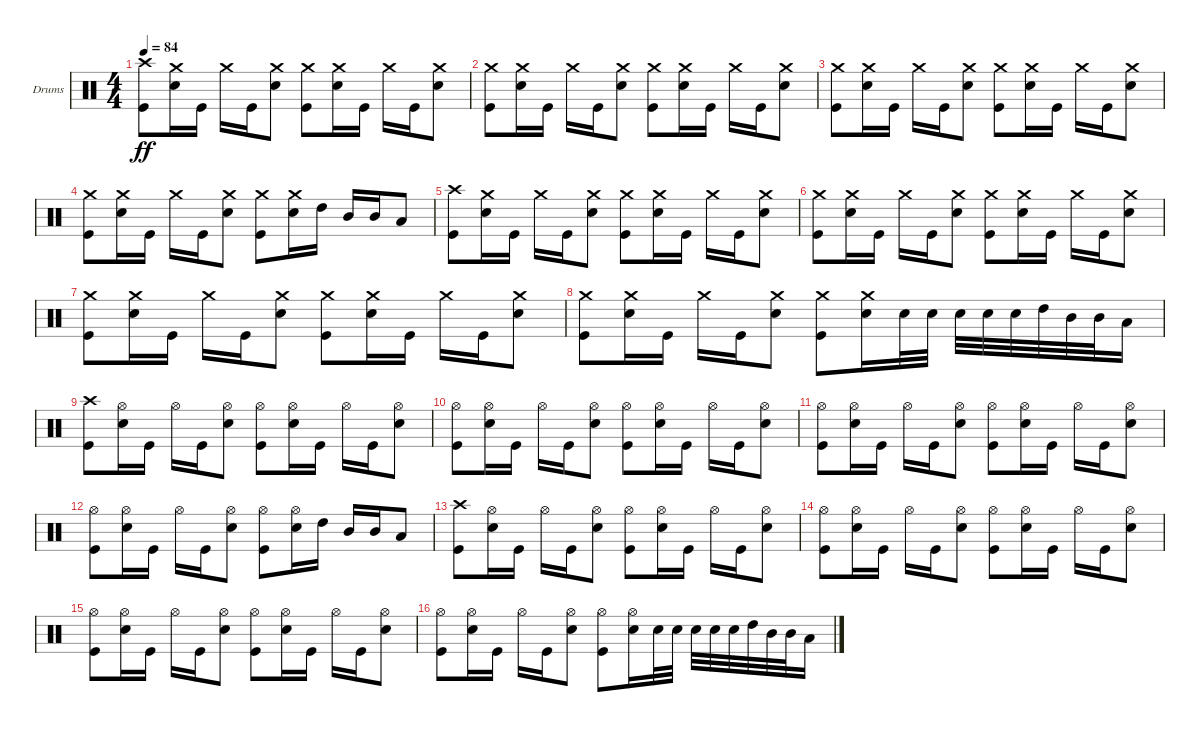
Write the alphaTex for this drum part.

\defaultSystemsLayout 4
\bracketExtendMode groupsimilarinstruments
\firstSystemTrackNameOrientation horizontal
\otherSystemsTrackNameOrientation horizontal
\track ("Drumkit" "Drums") {instrument percussion}
\staff {score}
\articulation defaults
\ts (4 4)
\tempo 84
\clef neutral
\scale
0.472222
\ks c
("Kick (hit)" "Crash high (hit)").8{dy ff} ("Snare (hit) 2" "Crash medium (hit)").16 "Kick (hit)".16 "Crash medium (hit)".16 "Kick (hit)".16 ("Snare (hit) 2" "Crash medium (hit)").8 ("Kick (hit)" "Crash medium (hit)").8 ("Snare (hit) 2" "Crash medium (hit)").16 "Kick (hit)".16 "Crash medium (hit)".16 "Kick (hit)".16 ("Snare (hit) 2" "Crash medium (hit)").8 |
\scale
0.263889 ("Kick (hit)" "Crash medium (hit)").8 ("Snare (hit) 2" "Crash medium (hit)").16 "Kick (hit)".16 "Crash medium (hit)".16 "Kick (hit)".16 ("Snare (hit) 2" "Crash medium (hit)").8 ("Kick (hit)" "Crash medium (hit)").8 ("Snare (hit) 2" "Crash medium (hit)").16 "Kick (hit)".16 "Crash medium (hit)".16 "Kick (hit)".16 ("Snare (hit) 2" "Crash medium (hit)").8 |
\scale
0.263889 ("Kick (hit)" "Crash medium (hit)").8 ("Snare (hit) 2" "Crash medium (hit)").16 "Kick (hit)".16 "Crash medium (hit)".16 "Kick (hit)".16 ("Snare (hit) 2" "Crash medium (hit)").8 ("Kick (hit)" "Crash medium (hit)").8 ("Snare (hit) 2" "Crash medium (hit)").16 "Kick (hit)".16 "Crash medium (hit)".16 "Kick (hit)".16 ("Snare (hit) 2" "Crash medium (hit)").8 |
("Kick (hit)" "Crash medium (hit)").8 ("Snare (hit) 2" "Crash medium (hit)").16 "Kick (hit)".16 "Crash medium (hit)".16 "Kick (hit)".16 ("Snare (hit) 2" "Crash medium (hit)").8 ("Kick (hit)" "Crash medium (hit)").8 ("Snare (hit) 2" "Crash medium (hit)").16 "High Tom (hit)".16 "Mid Tom (hit)".16 "Mid Tom (hit)".16 "Low Tom (hit)".8 |
("Kick (hit)" "Crash high (hit)").8 ("Snare (hit) 2" "Crash medium (hit)").16 "Kick (hit)".16 "Crash medium (hit)".16 "Kick (hit)".16 ("Snare (hit) 2" "Crash medium (hit)").8 ("Kick (hit)" "Crash medium (hit)").8 ("Snare (hit) 2" "Crash medium (hit)").16 "Kick (hit)".16 "Crash medium (hit)".16 "Kick (hit)".16 ("Snare (hit) 2" "Crash medium (hit)").8 |
("Kick (hit)" "Crash medium (hit)").8 ("Snare (hit) 2" "Crash medium (hit)").16 "Kick (hit)".16 "Crash medium (hit)".16 "Kick (hit)".16 ("Snare (hit) 2" "Crash medium (hit)").8 ("Kick (hit)" "Crash medium (hit)").8 ("Snare (hit) 2" "Crash medium (hit)").16 "Kick (hit)".16 "Crash medium (hit)".16 "Kick (hit)".16 ("Snare (hit) 2" "Crash medium (hit)").8 |
("Kick (hit)" "Crash medium (hit)").8 ("Snare (hit) 2" "Crash medium (hit)").16 "Kick (hit)".16 "Crash medium (hit)".16 "Kick (hit)".16 ("Snare (hit) 2" "Crash medium (hit)").8 ("Kick (hit)" "Crash medium (hit)").8 ("Snare (hit) 2" "Crash medium (hit)").16 "Kick (hit)".16 "Crash medium (hit)".16 "Kick (hit)".16 ("Snare (hit) 2" "Crash medium (hit)").8 |
("Kick (hit)" "Crash medium (hit)").8 ("Snare (hit) 2" "Crash medium (hit)").16 "Kick (hit)".16 "Crash medium (hit)".16 "Kick (hit)".16 ("Snare (hit) 2" "Crash medium (hit)").8 ("Kick (hit)" "Crash medium (hit)").8 ("Crash medium (hit)" "Snare (hit) 2").16 "Snare (hit) 2".32 "Snare (hit) 2".32 "Snare (hit) 2".32 "Snare (hit) 2".32 "Snare (hit) 2".32 "High Tom (hit)".32 "Mid Tom (hit)".32 "Mid Tom (hit)".32 "Low Tom (hit)".16 |
("Kick (hit)" "Crash high (hit)").8 ("Snare (hit) 2" "Hi-Hat (open)").16 "Kick (hit)".16 "Hi-Hat (open)".16 "Kick (hit)".16 ("Snare (hit) 2" "Hi-Hat (open)").8 ("Kick (hit)" "Hi-Hat (open)").8 ("Snare (hit) 2" "Hi-Hat (open)").16 "Kick (hit)".16 "Hi-Hat (open)".16 "Kick (hit)".16 ("Snare (hit) 2" "Hi-Hat (open)").8 |
("Kick (hit)" "Hi-Hat (open)").8 ("Snare (hit) 2" "Hi-Hat (open)").16 "Kick (hit)".16 "Hi-Hat (open)".16 "Kick (hit)".16 ("Snare (hit) 2" "Hi-Hat (open)").8 ("Kick (hit)" "Hi-Hat (open)").8 ("Snare (hit) 2" "Hi-Hat (open)").16 "Kick (hit)".16 "Hi-Hat (open)".16 "Kick (hit)".16 ("Snare (hit) 2" "Hi-Hat (open)").8 |
("Kick (hit)" "Hi-Hat (open)").8 ("Snare (hit) 2" "Hi-Hat (open)").16 "Kick (hit)".16 "Hi-Hat (open)".16 "Kick (hit)".16 ("Snare (hit) 2" "Hi-Hat (open)").8 ("Kick (hit)" "Hi-Hat (open)").8 ("Snare (hit) 2" "Hi-Hat (open)").16 "Kick (hit)".16 "Hi-Hat (open)".16 "Kick (hit)".16 ("Snare (hit) 2" "Hi-Hat (open)").8 |
("Kick (hit)" "Hi-Hat (open)").8 ("Snare (hit) 2" "Hi-Hat (open)").16 "Kick (hit)".16 "Hi-Hat (open)".16 "Kick (hit)".16 ("Snare (hit) 2" "Hi-Hat (open)").8 ("Kick (hit)" "Hi-Hat (open)").8 ("Snare (hit) 2" "Hi-Hat (open)").16 "High Tom (hit)".16 "Mid Tom (hit)".16 "Mid Tom (hit)".16 "Low Tom (hit)".8 |
("Kick (hit)" "Crash high (hit)").8 ("Snare (hit) 2" "Hi-Hat (open)").16 "Kick (hit)".16 "Hi-Hat (open)".16 "Kick (hit)".16 ("Snare (hit) 2" "Hi-Hat (open)").8 ("Kick (hit)" "Hi-Hat (open)").8 ("Snare (hit) 2" "Hi-Hat (open)").16 "Kick (hit)".16 "Hi-Hat (open)".16 "Kick (hit)".16 ("Snare (hit) 2" "Hi-Hat (open)").8 |
("Kick (hit)" "Hi-Hat (open)").8 ("Snare (hit) 2" "Hi-Hat (open)").16 "Kick (hit)".16 "Hi-Hat (open)".16 "Kick (hit)".16 ("Snare (hit) 2" "Hi-Hat (open)").8 ("Kick (hit)" "Hi-Hat (open)").8 ("Snare (hit) 2" "Hi-Hat (open)").16 "Kick (hit)".16 "Hi-Hat (open)".16 "Kick (hit)".16 ("Snare (hit) 2" "Hi-Hat (open)").8 |
("Kick (hit)" "Hi-Hat (open)").8 ("Snare (hit) 2" "Hi-Hat (open)").16 "Kick (hit)".16 "Hi-Hat (open)".16 "Kick (hit)".16 ("Snare (hit) 2" "Hi-Hat (open)").8 ("Kick (hit)" "Hi-Hat (open)").8 ("Snare (hit) 2" "Hi-Hat (open)").16 "Kick (hit)".16 "Hi-Hat (open)".16 "Kick (hit)".16 ("Snare (hit) 2" "Hi-Hat (open)").8 |
("Kick (hit)" "Hi-Hat (open)").8 ("Snare (hit) 2" "Hi-Hat (open)").16 "Kick (hit)".16 "Hi-Hat (open)".16 "Kick (hit)".16 ("Snare (hit) 2" "Hi-Hat (open)").8 ("Kick (hit)" "Hi-Hat (open)").8 ("Snare (hit) 2" "Hi-Hat (open)").16 "Snare (hit) 2".32 "Snare (hit) 2".32 "Snare (hit) 2".32 "Snare (hit) 2".32 "Snare (hit) 2".32 "High Tom (hit)".32 "Mid Tom (hit)".32 "Mid Tom (hit)".32 "Low Tom (hit)".16
